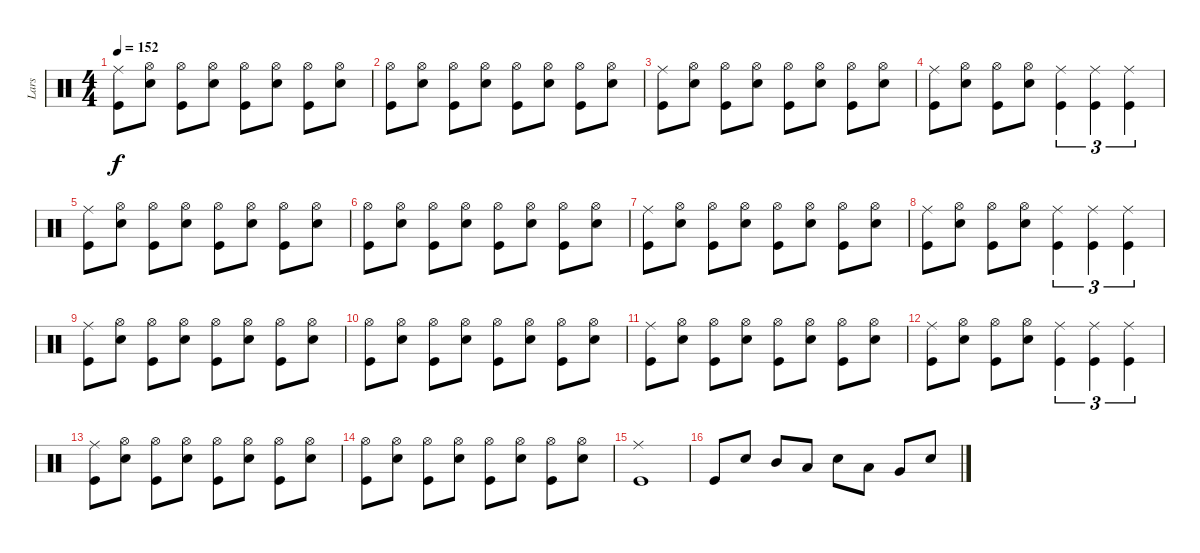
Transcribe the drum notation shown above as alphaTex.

\track ("Lars" "Lars") {instrument percussion}
\staff {score}
\articulation defaults
\ts (4 4)
\tempo 152
\clef neutral
\ks c
("Ride (middle)" "Kick (hit)").8{dy f} ("Hi-Hat (open)" "Snare (hit) 2").8 ("Hi-Hat (open)" "Kick (hit)").8 ("Hi-Hat (open)" "Snare (hit) 2").8 ("Hi-Hat (open)" "Kick (hit)").8 ("Hi-Hat (open)" "Snare (hit) 2").8 ("Hi-Hat (open)" "Kick (hit)").8 ("Hi-Hat (open)" "Snare (hit) 2").8 |
("Hi-Hat (open)" "Kick (hit)").8 ("Hi-Hat (open)" "Snare (hit) 2").8 ("Hi-Hat (open)" "Kick (hit)").8 ("Hi-Hat (open)" "Snare (hit) 2").8 ("Hi-Hat (open)" "Kick (hit)").8 ("Hi-Hat (open)" "Snare (hit) 2").8 ("Hi-Hat (open)" "Kick (hit)").8 ("Hi-Hat (open)" "Snare (hit) 2").8 |
("Ride (middle)" "Kick (hit)").8 ("Hi-Hat (open)" "Snare (hit) 2").8 ("Hi-Hat (open)" "Kick (hit)").8 ("Hi-Hat (open)" "Snare (hit) 2").8 ("Hi-Hat (open)" "Kick (hit)").8 ("Hi-Hat (open)" "Snare (hit) 2").8 ("Hi-Hat (open)" "Kick (hit)").8 ("Hi-Hat (open)" "Snare (hit) 2").8 |
("Ride (middle)" "Kick (hit)").8 ("Hi-Hat (open)" "Snare (hit) 2").8 ("Hi-Hat (open)" "Kick (hit)").8 ("Hi-Hat (open)" "Snare (hit) 2").8 ("Ride (middle)" "Kick (hit)").4{tu (3 2)} ("Ride (middle)" "Kick (hit)").4{tu (3 2)} ("Ride (middle)" "Kick (hit)").4{tu (3 2)} |
("Ride (middle)" "Kick (hit)").8 ("Hi-Hat (open)" "Snare (hit) 2").8 ("Hi-Hat (open)" "Kick (hit)").8 ("Hi-Hat (open)" "Snare (hit) 2").8 ("Hi-Hat (open)" "Kick (hit)").8 ("Hi-Hat (open)" "Snare (hit) 2").8 ("Hi-Hat (open)" "Kick (hit)").8 ("Hi-Hat (open)" "Snare (hit) 2").8 |
("Hi-Hat (open)" "Kick (hit)").8 ("Hi-Hat (open)" "Snare (hit) 2").8 ("Hi-Hat (open)" "Kick (hit)").8 ("Hi-Hat (open)" "Snare (hit) 2").8 ("Hi-Hat (open)" "Kick (hit)").8 ("Hi-Hat (open)" "Snare (hit) 2").8 ("Hi-Hat (open)" "Kick (hit)").8 ("Hi-Hat (open)" "Snare (hit) 2").8 |
("Ride (middle)" "Kick (hit)").8 ("Hi-Hat (open)" "Snare (hit) 2").8 ("Hi-Hat (open)" "Kick (hit)").8 ("Hi-Hat (open)" "Snare (hit) 2").8 ("Hi-Hat (open)" "Kick (hit)").8 ("Hi-Hat (open)" "Snare (hit) 2").8 ("Hi-Hat (open)" "Kick (hit)").8 ("Hi-Hat (open)" "Snare (hit) 2").8 |
("Ride (middle)" "Kick (hit)").8 ("Hi-Hat (open)" "Snare (hit) 2").8 ("Hi-Hat (open)" "Kick (hit)").8 ("Hi-Hat (open)" "Snare (hit) 2").8 ("Ride (middle)" "Kick (hit)").4{tu (3 2)} ("Ride (middle)" "Kick (hit)").4{tu (3 2)} ("Ride (middle)" "Kick (hit)").4{tu (3 2)} |
("Ride (middle)" "Kick (hit)").8 ("Hi-Hat (open)" "Snare (hit) 2").8 ("Hi-Hat (open)" "Kick (hit)").8 ("Hi-Hat (open)" "Snare (hit) 2").8 ("Hi-Hat (open)" "Kick (hit)").8 ("Hi-Hat (open)" "Snare (hit) 2").8 ("Hi-Hat (open)" "Kick (hit)").8 ("Hi-Hat (open)" "Snare (hit) 2").8 |
("Hi-Hat (open)" "Kick (hit)").8 ("Hi-Hat (open)" "Snare (hit) 2").8 ("Hi-Hat (open)" "Kick (hit)").8 ("Hi-Hat (open)" "Snare (hit) 2").8 ("Hi-Hat (open)" "Kick (hit)").8 ("Hi-Hat (open)" "Snare (hit) 2").8 ("Hi-Hat (open)" "Kick (hit)").8 ("Hi-Hat (open)" "Snare (hit) 2").8 |
("Ride (middle)" "Kick (hit)").8 ("Hi-Hat (open)" "Snare (hit) 2").8 ("Hi-Hat (open)" "Kick (hit)").8 ("Hi-Hat (open)" "Snare (hit) 2").8 ("Hi-Hat (open)" "Kick (hit)").8 ("Hi-Hat (open)" "Snare (hit) 2").8 ("Hi-Hat (open)" "Kick (hit)").8 ("Hi-Hat (open)" "Snare (hit) 2").8 |
("Ride (middle)" "Kick (hit)").8 ("Hi-Hat (open)" "Snare (hit) 2").8 ("Hi-Hat (open)" "Kick (hit)").8 ("Hi-Hat (open)" "Snare (hit) 2").8 ("Ride (middle)" "Kick (hit)").4{tu (3 2)} ("Ride (middle)" "Kick (hit)").4{tu (3 2)} ("Ride (middle)" "Kick (hit)").4{tu (3 2)} |
("Ride (middle)" "Kick (hit)").8 ("Hi-Hat (open)" "Snare (hit) 2").8 ("Hi-Hat (open)" "Kick (hit)").8 ("Hi-Hat (open)" "Snare (hit) 2").8 ("Hi-Hat (open)" "Kick (hit)").8 ("Hi-Hat (open)" "Snare (hit) 2").8 ("Hi-Hat (open)" "Kick (hit)").8 ("Hi-Hat (open)" "Snare (hit) 2").8 |
("Hi-Hat (open)" "Kick (hit)").8 ("Hi-Hat (open)" "Snare (hit) 2").8 ("Hi-Hat (open)" "Kick (hit)").8 ("Hi-Hat (open)" "Snare (hit) 2").8 ("Hi-Hat (open)" "Kick (hit)").8 ("Hi-Hat (open)" "Snare (hit) 2").8 ("Hi-Hat (open)" "Kick (hit)").8 ("Hi-Hat (open)" "Snare (hit) 2").8 |
("Ride (middle)" "Kick (hit)").1 |
"Kick (hit)".8 "Snare (hit) 2".8 "Mid Tom (hit)".8 "Low Tom (hit)".8 "Snare (hit) 2".8 "Low Tom (hit)".8 "Very Low Tom (hit)".8 "Snare (hit) 2".8
